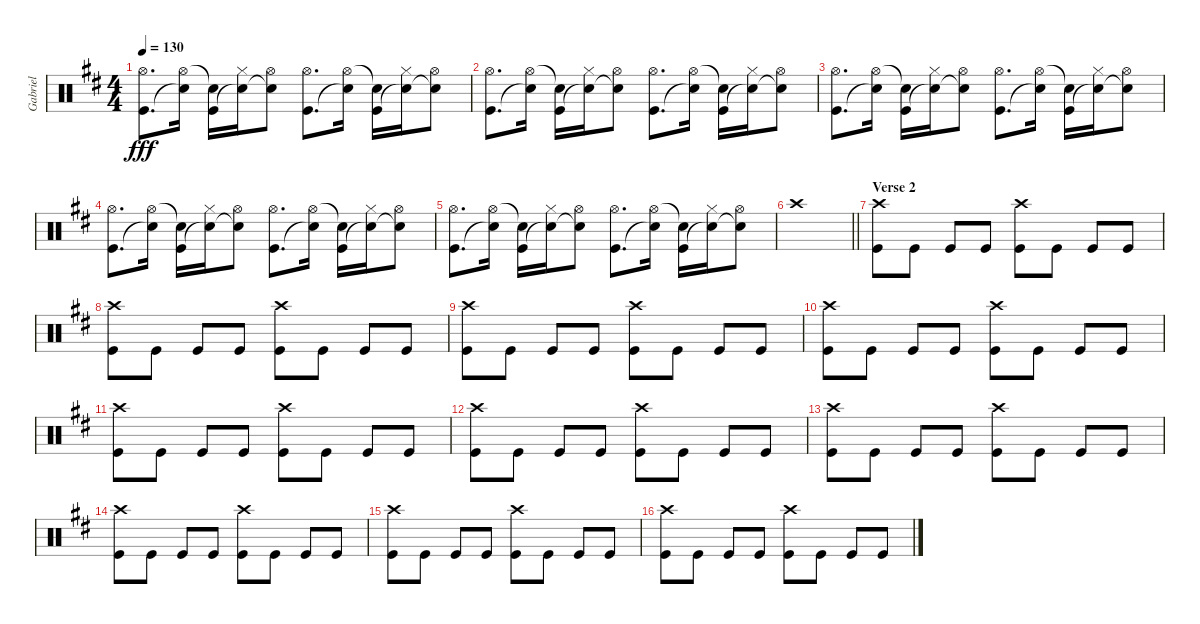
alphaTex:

\track ("Gabriel" "Gabriel") {instrument percussion}
\staff {score}
\articulation defaults
\ts (4 4)
\tempo 130
\clef neutral
\ks d
("Hi-Hat (open)" "Kick (hit)").8{d dy fff} ("Hi-Hat (open)" "Snare (hit)"{t}).16 ("Snare (hit)"{t} "Kick (hit)").16 ("Hi-Hat (closed)" "Snare (hit)"{t}).16 ("Hi-Hat (open)" "Snare (hit)"{t}).8 ("Hi-Hat (open)" "Kick (hit)").8{d} ("Hi-Hat (open)" "Snare (hit)"{t}).16 ("Snare (hit)"{t} "Kick (hit)").16 ("Hi-Hat (closed)" "Snare (hit)"{t}).16 ("Hi-Hat (open)" "Snare (hit)"{t}).8 |
("Hi-Hat (open)" "Kick (hit)").8{d} ("Hi-Hat (open)" "Snare (hit)"{t}).16 ("Snare (hit)"{t} "Kick (hit)").16 ("Hi-Hat (closed)" "Snare (hit)"{t}).16 ("Hi-Hat (open)" "Snare (hit)"{t}).8 ("Hi-Hat (open)" "Kick (hit)").8{d} ("Hi-Hat (open)" "Snare (hit)"{t}).16 ("Snare (hit)"{t} "Kick (hit)").16 ("Hi-Hat (closed)" "Snare (hit)"{t}).16 ("Hi-Hat (open)" "Snare (hit)"{t}).8 |
("Hi-Hat (open)" "Kick (hit)").8{d} ("Hi-Hat (open)" "Snare (hit)"{t}).16 ("Snare (hit)"{t} "Kick (hit)").16 ("Hi-Hat (closed)" "Snare (hit)"{t}).16 ("Hi-Hat (open)" "Snare (hit)"{t}).8 ("Hi-Hat (open)" "Kick (hit)").8{d} ("Hi-Hat (open)" "Snare (hit)"{t}).16 ("Snare (hit)"{t} "Kick (hit)").16 ("Hi-Hat (closed)" "Snare (hit)"{t}).16 ("Hi-Hat (open)" "Snare (hit)"{t}).8 |
("Hi-Hat (open)" "Kick (hit)").8{d} ("Hi-Hat (open)" "Snare (hit)"{t}).16 ("Snare (hit)"{t} "Kick (hit)").16 ("Hi-Hat (closed)" "Snare (hit)"{t}).16 ("Hi-Hat (open)" "Snare (hit)"{t}).8 ("Hi-Hat (open)" "Kick (hit)").8{d} ("Hi-Hat (open)" "Snare (hit)"{t}).16 ("Snare (hit)"{t} "Kick (hit)").16 ("Hi-Hat (closed)" "Snare (hit)"{t}).16 ("Hi-Hat (open)" "Snare (hit)"{t}).8 |
("Hi-Hat (open)" "Kick (hit)").8{d} ("Hi-Hat (open)" "Snare (hit)"{t}).16 ("Snare (hit)"{t} "Kick (hit)").16 ("Hi-Hat (closed)" "Snare (hit)"{t}).16 ("Hi-Hat (open)" "Snare (hit)"{t}).8 ("Hi-Hat (open)" "Kick (hit)").8{d} ("Hi-Hat (open)" "Snare (hit)"{t}).16 ("Snare (hit)"{t} "Kick (hit)").16 ("Hi-Hat (closed)" "Snare (hit)"{t}).16 ("Hi-Hat (open)" "Snare (hit)"{t}).8 |
\barLineRight lightlight "Crash high (hit)".1
|
\section ("" "Verse 2")
("Crash high (hit)" "Kick (hit)").8 "Kick (hit)".8 "Kick (hit)".8 "Kick (hit)".8 ("Crash high (hit)" "Kick (hit)").8 "Kick (hit)".8 "Kick (hit)".8 "Kick (hit)".8 |
("Crash high (hit)" "Kick (hit)").8 "Kick (hit)".8 "Kick (hit)".8 "Kick (hit)".8 ("Crash high (hit)" "Kick (hit)").8 "Kick (hit)".8 "Kick (hit)".8 "Kick (hit)".8 |
("Crash high (hit)" "Kick (hit)").8 "Kick (hit)".8 "Kick (hit)".8 "Kick (hit)".8 ("Crash high (hit)" "Kick (hit)").8 "Kick (hit)".8 "Kick (hit)".8 "Kick (hit)".8 |
("Crash high (hit)" "Kick (hit)").8 "Kick (hit)".8 "Kick (hit)".8 "Kick (hit)".8 ("Crash high (hit)" "Kick (hit)").8 "Kick (hit)".8 "Kick (hit)".8 "Kick (hit)".8 |
("Crash high (hit)" "Kick (hit)").8 "Kick (hit)".8 "Kick (hit)".8 "Kick (hit)".8 ("Crash high (hit)" "Kick (hit)").8 "Kick (hit)".8 "Kick (hit)".8 "Kick (hit)".8 |
("Crash high (hit)" "Kick (hit)").8 "Kick (hit)".8 "Kick (hit)".8 "Kick (hit)".8 ("Crash high (hit)" "Kick (hit)").8 "Kick (hit)".8 "Kick (hit)".8 "Kick (hit)".8 |
("Crash high (hit)" "Kick (hit)").8 "Kick (hit)".8 "Kick (hit)".8 "Kick (hit)".8 ("Crash high (hit)" "Kick (hit)").8 "Kick (hit)".8 "Kick (hit)".8 "Kick (hit)".8 |
("Crash high (hit)" "Kick (hit)").8 "Kick (hit)".8 "Kick (hit)".8 "Kick (hit)".8 ("Crash high (hit)" "Kick (hit)").8 "Kick (hit)".8 "Kick (hit)".8 "Kick (hit)".8 |
("Crash high (hit)" "Kick (hit)").8 "Kick (hit)".8 "Kick (hit)".8 "Kick (hit)".8 ("Crash high (hit)" "Kick (hit)").8 "Kick (hit)".8 "Kick (hit)".8 "Kick (hit)".8 |
("Crash high (hit)" "Kick (hit)").8 "Kick (hit)".8 "Kick (hit)".8 "Kick (hit)".8 ("Crash high (hit)" "Kick (hit)").8 "Kick (hit)".8 "Kick (hit)".8 "Kick (hit)".8
